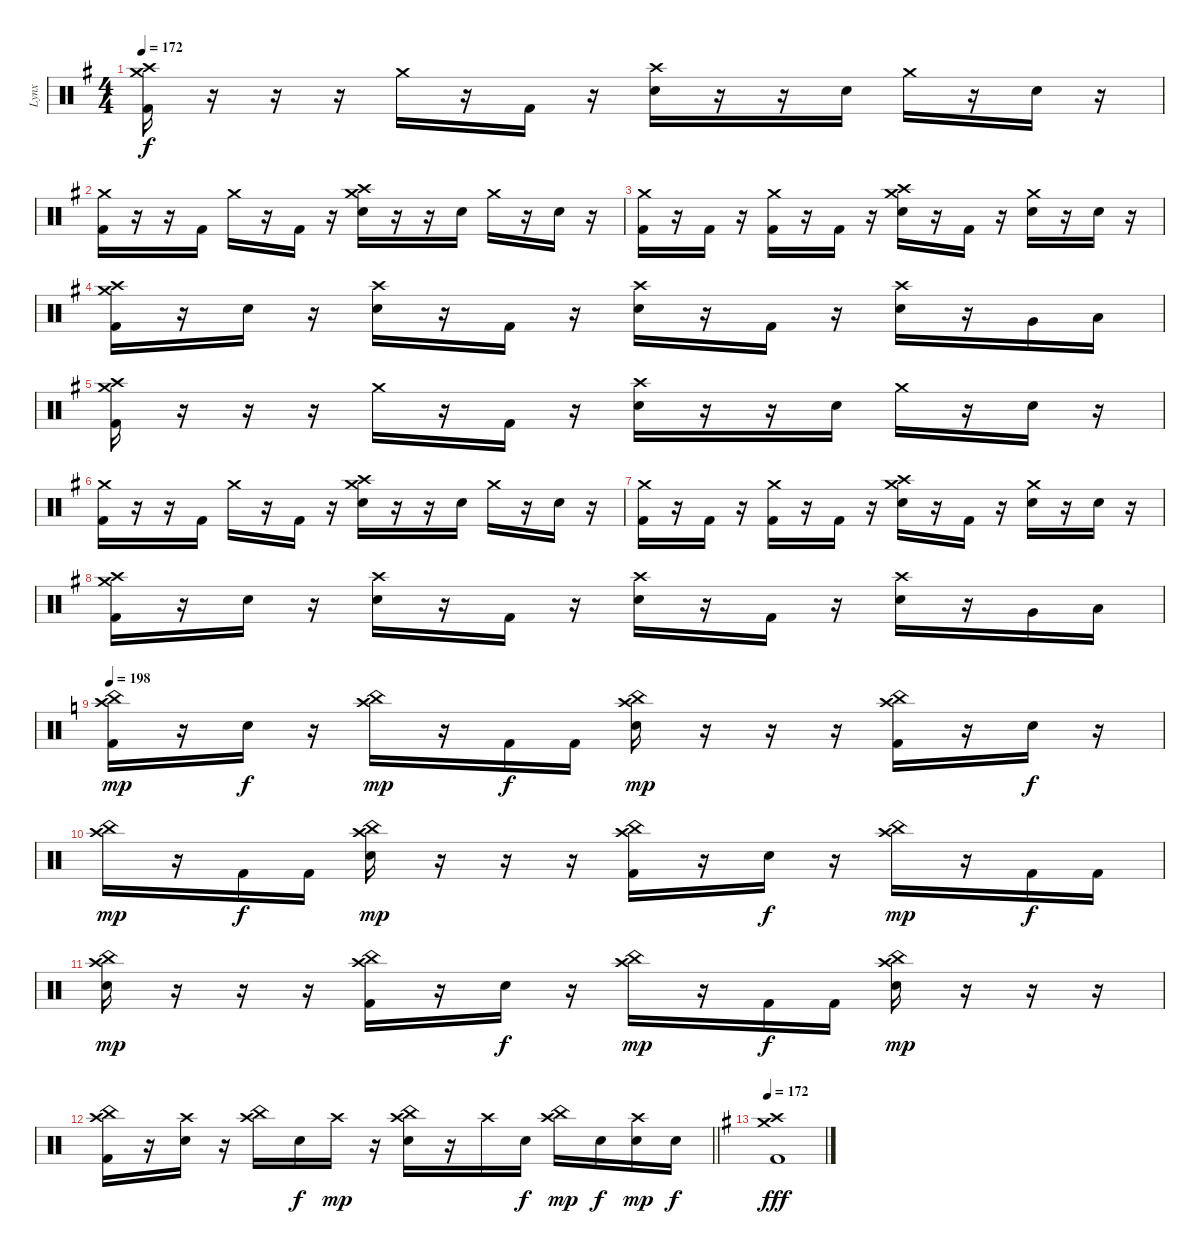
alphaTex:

\track ("Lynx" "Lynx") {instrument percussion}
\staff {score}
\articulation defaults
\ts (4 4)
\section ("" "")
\tempo 172
\clef neutral
\ks g
("Crash high (hit)" "Crash medium (hit)" "Kick (hit) 2").16{dy f} r.16 r.16 r.16 "Crash medium (hit)".16 r.16 "Kick (hit) 2".16 r.16 ("Crash high (hit)" "Electric Snare (hit)").16 r.16 r.16 "Electric Snare (hit)".16 "Crash medium (hit)".16 r.16 "Electric Snare (hit)".16 r.16 |
("Crash medium (hit)" "Kick (hit) 2").16 r.16 r.16 "Kick (hit) 2".16 "Crash medium (hit)".16 r.16 "Kick (hit) 2".16 r.16 ("Crash medium (hit)" "Crash high (hit)" "Electric Snare (hit)").16 r.16 r.16 "Electric Snare (hit)".16 "Crash medium (hit)".16 r.16 "Electric Snare (hit)".16 r.16 |
("Crash medium (hit)" "Kick (hit) 2").16 r.16 "Kick (hit) 2".16 r.16 ("Crash medium (hit)" "Kick (hit) 2").16 r.16 "Kick (hit) 2".16 r.16 ("Crash medium (hit)" "Crash high (hit)" "Electric Snare (hit)").16 r.16 "Kick (hit) 2".16 r.16 ("Crash medium (hit)" "Electric Snare (hit)").16 r.16 "Electric Snare (hit)".16 r.16 |
("Crash medium (hit)" "Crash high (hit)" "Kick (hit) 2").16 r.16 "Electric Snare (hit)".16 r.16 ("Crash high (hit)" "Electric Snare (hit)").16 r.16 "Kick (hit) 2".16 r.16 ("Crash high (hit)" "Electric Snare (hit)").16 r.16 "Kick (hit) 2".16 r.16 ("Crash high (hit)" "Electric Snare (hit)").16 r.16 "Very Low Tom (hit)".16 "Low Floor Tom (hit)".16 |
("Crash high (hit)" "Crash medium (hit)" "Kick (hit) 2").16 r.16 r.16 r.16 "Crash medium (hit)".16 r.16 "Kick (hit) 2".16 r.16 ("Crash high (hit)" "Electric Snare (hit)").16 r.16 r.16 "Electric Snare (hit)".16 "Crash medium (hit)".16 r.16 "Electric Snare (hit)".16 r.16 |
("Crash medium (hit)" "Kick (hit) 2").16 r.16 r.16 "Kick (hit) 2".16 "Crash medium (hit)".16 r.16 "Kick (hit) 2".16 r.16 ("Crash medium (hit)" "Crash high (hit)" "Electric Snare (hit)").16 r.16 r.16 "Electric Snare (hit)".16 "Crash medium (hit)".16 r.16 "Electric Snare (hit)".16 r.16 |
("Crash medium (hit)" "Kick (hit) 2").16 r.16 "Kick (hit) 2".16 r.16 ("Crash medium (hit)" "Kick (hit) 2").16 r.16 "Kick (hit) 2".16 r.16 ("Crash medium (hit)" "Crash high (hit)" "Electric Snare (hit)").16 r.16 "Kick (hit) 2".16 r.16 ("Crash medium (hit)" "Electric Snare (hit)").16 r.16 "Electric Snare (hit)".16 r.16 |
("Crash medium (hit)" "Crash high (hit)" "Kick (hit) 2").16 r.16 "Electric Snare (hit)".16 r.16 ("Crash high (hit)" "Electric Snare (hit)").16 r.16 "Kick (hit) 2".16 r.16 ("Crash high (hit)" "Electric Snare (hit)").16 r.16 "Kick (hit) 2".16 r.16 ("Crash high (hit)" "Electric Snare (hit)").16 r.16 "Very Low Tom (hit)".16 "Low Floor Tom (hit)".16 |
\tempo 198
\ks c
("China (hit)" "Crash high (hit)" "Kick (hit) 2").16{dy mp} r.16 "Electric Snare (hit)".16{dy f} r.16 ("China (hit)" "Crash high (hit)").16{dy mp} r.16 "Kick (hit) 2".16{dy f} "Kick (hit) 2".16 ("China (hit)" "Crash high (hit)" "Electric Snare (hit)").16{dy mp} r.16 r.16 r.16 ("China (hit)" "Crash high (hit)" "Kick (hit) 2").16 r.16 "Electric Snare (hit)".16{dy f} r.16 |
("China (hit)" "Crash high (hit)").16{dy mp} r.16 "Kick (hit) 2".16{dy f} "Kick (hit) 2".16 ("China (hit)" "Crash high (hit)" "Electric Snare (hit)").16{dy mp} r.16 r.16 r.16 ("China (hit)" "Crash high (hit)" "Kick (hit) 2").16 r.16 "Electric Snare (hit)".16{dy f} r.16 ("China (hit)" "Crash high (hit)").16{dy mp} r.16 "Kick (hit) 2".16{dy f} "Kick (hit) 2".16 |
("China (hit)" "Crash high (hit)" "Electric Snare (hit)").16{dy mp} r.16 r.16 r.16 ("China (hit)" "Crash high (hit)" "Kick (hit) 2").16 r.16 "Electric Snare (hit)".16{dy f} r.16 ("China (hit)" "Crash high (hit)").16{dy mp} r.16 "Kick (hit) 2".16{dy f} "Kick (hit) 2".16 ("China (hit)" "Crash high (hit)" "Electric Snare (hit)").16{dy mp} r.16 r.16 r.16 |
\barLineRight lightlight
("China (hit)" "Crash high (hit)" "Kick (hit) 2").16 r.16 ("Crash high (hit)" "Electric Snare (hit)").16 r.16 ("China (hit)" "Crash high (hit)").16 "Electric Snare (hit)".16{dy f} "Crash high (hit)".16{dy mp} r.16 ("China (hit)" "Crash high (hit)" "Electric Snare (hit)").16 r.16 "Crash high (hit)".16 "Electric Snare (hit)".16{dy f} ("China (hit)" "Crash high (hit)").16{dy mp} "Electric Snare (hit)".16{dy f} ("Crash high (hit)" "Electric Snare (hit)").16{dy mp} "Electric Snare (hit)".16{dy f} |
\section ("" "")
\tempo 172
\ks g
("Crash medium (hit)" "Crash high (hit)" "Kick (hit) 2").1{dy fff}
